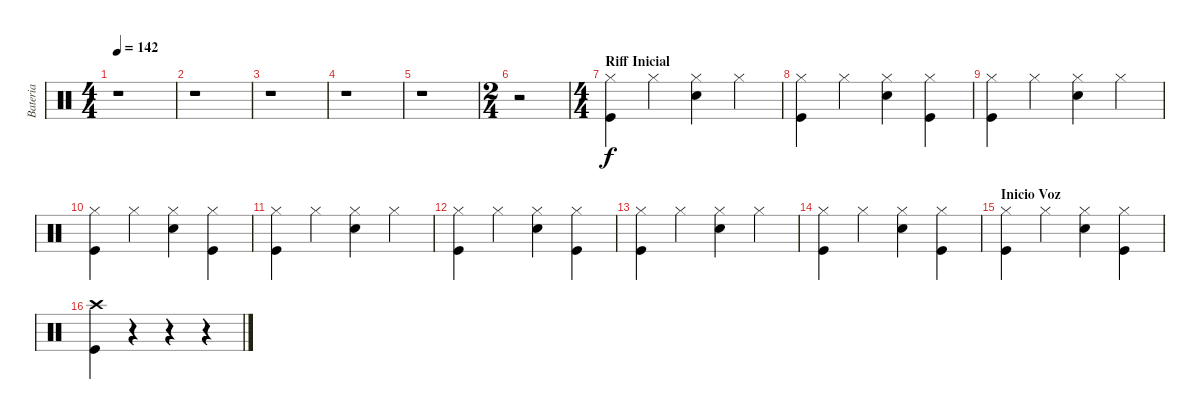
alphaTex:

\track ("Bateria" "Bateria") {instrument percussion}
\staff {score}
\articulation defaults
\ts (4 4)
\tempo 142
\clef neutral
\ks c
r.1{dy f} |
r.1 |
r.1 |
r.1 |
r.1 |
\ts (2 4)
r.2 |
\ts (4 4)
\section ("" "Riff Inicial")
("Hi-Hat (closed)" "Kick (hit)").4 "Hi-Hat (closed)".4 ("Hi-Hat (closed)" "Snare (hit) 2").4 "Hi-Hat (closed)".4 |
("Hi-Hat (closed)" "Kick (hit)").4 "Hi-Hat (closed)".4 ("Hi-Hat (closed)" "Snare (hit) 2").4 ("Hi-Hat (closed)" "Kick (hit)").4 |
("Hi-Hat (closed)" "Kick (hit)").4 "Hi-Hat (closed)".4 ("Hi-Hat (closed)" "Snare (hit) 2").4 "Hi-Hat (closed)".4 |
("Hi-Hat (closed)" "Kick (hit)").4 "Hi-Hat (closed)".4 ("Hi-Hat (closed)" "Snare (hit) 2").4 ("Hi-Hat (closed)" "Kick (hit)").4 |
("Hi-Hat (closed)" "Kick (hit)").4 "Hi-Hat (closed)".4 ("Hi-Hat (closed)" "Snare (hit) 2").4 "Hi-Hat (closed)".4 |
("Hi-Hat (closed)" "Kick (hit)").4 "Hi-Hat (closed)".4 ("Hi-Hat (closed)" "Snare (hit) 2").4 ("Hi-Hat (closed)" "Kick (hit)").4 |
("Hi-Hat (closed)" "Kick (hit)").4 "Hi-Hat (closed)".4 ("Hi-Hat (closed)" "Snare (hit) 2").4 "Hi-Hat (closed)".4 |
("Hi-Hat (closed)" "Kick (hit)").4 "Hi-Hat (closed)".4 ("Hi-Hat (closed)" "Snare (hit) 2").4 ("Hi-Hat (closed)" "Kick (hit)").4 |
\section ("" "Inicio Voz")
("Hi-Hat (closed)" "Kick (hit)").4 "Hi-Hat (closed)".4 ("Hi-Hat (closed)" "Snare (hit) 2").4 ("Hi-Hat (closed)" "Kick (hit)").4 |
("Crash high (hit)" "Kick (hit)").4 r.4 r.4 r.4
